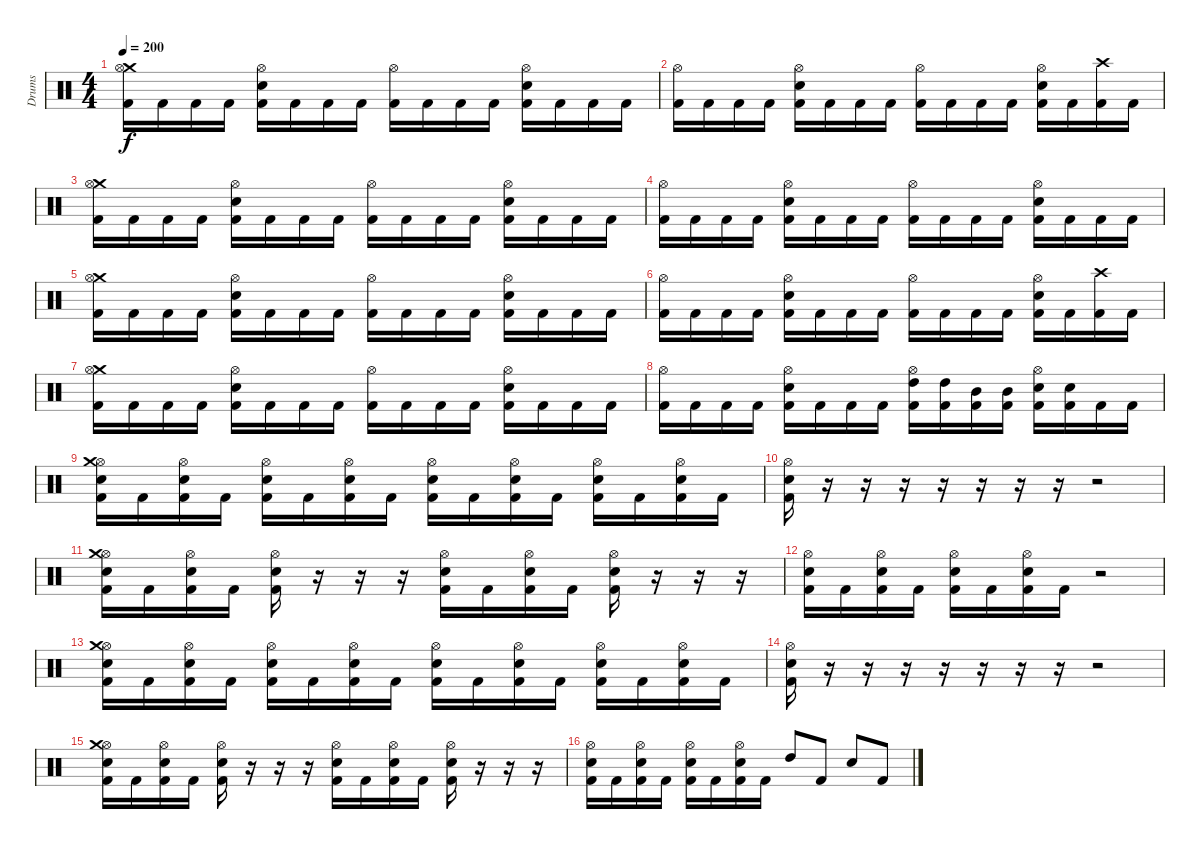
\track ("Drums" "Drums") {instrument percussion}
\staff {score}
\articulation defaults
\ts (4 4)
\tempo 200
\clef neutral
\ks c
("Crash medium (hit)" "Hi-Hat (open)" "Kick (hit) 2").16{dy f} "Kick (hit) 2".16 "Kick (hit) 2".16 "Kick (hit) 2".16 ("Hi-Hat (open)" "Electric Snare (hit)" "Kick (hit) 2").16 "Kick (hit) 2".16 "Kick (hit) 2".16 "Kick (hit) 2".16 ("Hi-Hat (open)" "Kick (hit) 2").16 "Kick (hit) 2".16 "Kick (hit) 2".16 "Kick (hit) 2".16 ("Hi-Hat (open)" "Electric Snare (hit)" "Kick (hit) 2").16 "Kick (hit) 2".16 "Kick (hit) 2".16 "Kick (hit) 2".16 |
("Hi-Hat (open)" "Kick (hit) 2").16 "Kick (hit) 2".16 "Kick (hit) 2".16 "Kick (hit) 2".16 ("Hi-Hat (open)" "Electric Snare (hit)" "Kick (hit) 2").16 "Kick (hit) 2".16 "Kick (hit) 2".16 "Kick (hit) 2".16 ("Hi-Hat (open)" "Kick (hit) 2").16 "Kick (hit) 2".16 "Kick (hit) 2".16 "Kick (hit) 2".16 ("Hi-Hat (open)" "Electric Snare (hit)" "Kick (hit) 2").16 "Kick (hit) 2".16 ("Crash high (hit)" "Kick (hit) 2").16 "Kick (hit) 2".16 |
("Crash medium (hit)" "Hi-Hat (open)" "Kick (hit) 2").16 "Kick (hit) 2".16 "Kick (hit) 2".16 "Kick (hit) 2".16 ("Hi-Hat (open)" "Electric Snare (hit)" "Kick (hit) 2").16 "Kick (hit) 2".16 "Kick (hit) 2".16 "Kick (hit) 2".16 ("Hi-Hat (open)" "Kick (hit) 2").16 "Kick (hit) 2".16 "Kick (hit) 2".16 "Kick (hit) 2".16 ("Hi-Hat (open)" "Electric Snare (hit)" "Kick (hit) 2").16 "Kick (hit) 2".16 "Kick (hit) 2".16 "Kick (hit) 2".16 |
("Hi-Hat (open)" "Kick (hit) 2").16 "Kick (hit) 2".16 "Kick (hit) 2".16 "Kick (hit) 2".16 ("Hi-Hat (open)" "Electric Snare (hit)" "Kick (hit) 2").16 "Kick (hit) 2".16 "Kick (hit) 2".16 "Kick (hit) 2".16 ("Hi-Hat (open)" "Kick (hit) 2").16 "Kick (hit) 2".16 "Kick (hit) 2".16 "Kick (hit) 2".16 ("Hi-Hat (open)" "Electric Snare (hit)" "Kick (hit) 2").16 "Kick (hit) 2".16 "Kick (hit) 2".16 "Kick (hit) 2".16 |
("Crash medium (hit)" "Hi-Hat (open)" "Kick (hit) 2").16 "Kick (hit) 2".16 "Kick (hit) 2".16 "Kick (hit) 2".16 ("Hi-Hat (open)" "Electric Snare (hit)" "Kick (hit) 2").16 "Kick (hit) 2".16 "Kick (hit) 2".16 "Kick (hit) 2".16 ("Hi-Hat (open)" "Kick (hit) 2").16 "Kick (hit) 2".16 "Kick (hit) 2".16 "Kick (hit) 2".16 ("Hi-Hat (open)" "Electric Snare (hit)" "Kick (hit) 2").16 "Kick (hit) 2".16 "Kick (hit) 2".16 "Kick (hit) 2".16 |
("Hi-Hat (open)" "Kick (hit) 2").16 "Kick (hit) 2".16 "Kick (hit) 2".16 "Kick (hit) 2".16 ("Hi-Hat (open)" "Electric Snare (hit)" "Kick (hit) 2").16 "Kick (hit) 2".16 "Kick (hit) 2".16 "Kick (hit) 2".16 ("Hi-Hat (open)" "Kick (hit) 2").16 "Kick (hit) 2".16 "Kick (hit) 2".16 "Kick (hit) 2".16 ("Hi-Hat (open)" "Electric Snare (hit)" "Kick (hit) 2").16 "Kick (hit) 2".16 ("Crash high (hit)" "Kick (hit) 2").16 "Kick (hit) 2".16 |
("Crash medium (hit)" "Hi-Hat (open)" "Kick (hit) 2").16 "Kick (hit) 2".16 "Kick (hit) 2".16 "Kick (hit) 2".16 ("Hi-Hat (open)" "Electric Snare (hit)" "Kick (hit) 2").16 "Kick (hit) 2".16 "Kick (hit) 2".16 "Kick (hit) 2".16 ("Hi-Hat (open)" "Kick (hit) 2").16 "Kick (hit) 2".16 "Kick (hit) 2".16 "Kick (hit) 2".16 ("Hi-Hat (open)" "Electric Snare (hit)" "Kick (hit) 2").16 "Kick (hit) 2".16 "Kick (hit) 2".16 "Kick (hit) 2".16 |
("Hi-Hat (open)" "Kick (hit) 2").16 "Kick (hit) 2".16 "Kick (hit) 2".16 "Kick (hit) 2".16 ("Hi-Hat (open)" "Electric Snare (hit)" "Kick (hit) 2").16 "Kick (hit) 2".16 "Kick (hit) 2".16 "Kick (hit) 2".16 ("Hi-Hat (open)" "High Tom (hit)" "Kick (hit) 2").16 ("High Tom (hit)" "Kick (hit) 2").16 ("Mid Tom (hit)" "Kick (hit) 2").16 ("Mid Tom (hit)" "Kick (hit) 2").16 ("Hi-Hat (open)" "Electric Snare (hit)" "Kick (hit) 2").16 ("Electric Snare (hit)" "Kick (hit) 2").16 "Kick (hit) 2".16 "Kick (hit) 2".16 |
("Hi-Hat (open)" "Crash medium (hit)" "Electric Snare (hit)" "Kick (hit) 2").16 "Kick (hit) 2".16 ("Hi-Hat (open)" "Electric Snare (hit)" "Kick (hit) 2").16 "Kick (hit) 2".16 ("Hi-Hat (open)" "Electric Snare (hit)" "Kick (hit) 2").16 "Kick (hit) 2".16 ("Hi-Hat (open)" "Electric Snare (hit)" "Kick (hit) 2").16 "Kick (hit) 2".16 ("Hi-Hat (open)" "Electric Snare (hit)" "Kick (hit) 2").16 "Kick (hit) 2".16 ("Hi-Hat (open)" "Electric Snare (hit)" "Kick (hit) 2").16 "Kick (hit) 2".16 ("Hi-Hat (open)" "Electric Snare (hit)" "Kick (hit) 2").16 "Kick (hit) 2".16 ("Hi-Hat (open)" "Electric Snare (hit)" "Kick (hit) 2").16 "Kick (hit) 2".16 |
("Hi-Hat (open)" "Electric Snare (hit)" "Kick (hit) 2").16 r.16 r.16 r.16 r.16 r.16 r.16 r.16 r.2 |
("Hi-Hat (open)" "Crash medium (hit)" "Electric Snare (hit)" "Kick (hit) 2").16 "Kick (hit) 2".16 ("Hi-Hat (open)" "Electric Snare (hit)" "Kick (hit) 2").16 "Kick (hit) 2".16 ("Hi-Hat (open)" "Electric Snare (hit)" "Kick (hit) 2").16 r.16 r.16 r.16 ("Hi-Hat (open)" "Electric Snare (hit)" "Kick (hit) 2").16 "Kick (hit) 2".16 ("Hi-Hat (open)" "Electric Snare (hit)" "Kick (hit) 2").16 "Kick (hit) 2".16 ("Hi-Hat (open)" "Electric Snare (hit)" "Kick (hit) 2").16 r.16 r.16 r.16 |
("Hi-Hat (open)" "Electric Snare (hit)" "Kick (hit) 2").16 "Kick (hit) 2".16 ("Hi-Hat (open)" "Electric Snare (hit)" "Kick (hit) 2").16 "Kick (hit) 2".16 ("Hi-Hat (open)" "Electric Snare (hit)" "Kick (hit) 2").16 "Kick (hit) 2".16 ("Hi-Hat (open)" "Electric Snare (hit)" "Kick (hit) 2").16 "Kick (hit) 2".16 r.2 |
("Hi-Hat (open)" "Crash medium (hit)" "Electric Snare (hit)" "Kick (hit) 2").16 "Kick (hit) 2".16 ("Hi-Hat (open)" "Electric Snare (hit)" "Kick (hit) 2").16 "Kick (hit) 2".16 ("Hi-Hat (open)" "Electric Snare (hit)" "Kick (hit) 2").16 "Kick (hit) 2".16 ("Hi-Hat (open)" "Electric Snare (hit)" "Kick (hit) 2").16 "Kick (hit) 2".16 ("Hi-Hat (open)" "Electric Snare (hit)" "Kick (hit) 2").16 "Kick (hit) 2".16 ("Hi-Hat (open)" "Electric Snare (hit)" "Kick (hit) 2").16 "Kick (hit) 2".16 ("Hi-Hat (open)" "Electric Snare (hit)" "Kick (hit) 2").16 "Kick (hit) 2".16 ("Hi-Hat (open)" "Electric Snare (hit)" "Kick (hit) 2").16 "Kick (hit) 2".16 |
("Hi-Hat (open)" "Electric Snare (hit)" "Kick (hit) 2").16 r.16 r.16 r.16 r.16 r.16 r.16 r.16 r.2 |
("Hi-Hat (open)" "Crash medium (hit)" "Electric Snare (hit)" "Kick (hit) 2").16 "Kick (hit) 2".16 ("Hi-Hat (open)" "Electric Snare (hit)" "Kick (hit) 2").16 "Kick (hit) 2".16 ("Hi-Hat (open)" "Electric Snare (hit)" "Kick (hit) 2").16 r.16 r.16 r.16 ("Hi-Hat (open)" "Electric Snare (hit)" "Kick (hit) 2").16 "Kick (hit) 2".16 ("Hi-Hat (open)" "Electric Snare (hit)" "Kick (hit) 2").16 "Kick (hit) 2".16 ("Hi-Hat (open)" "Electric Snare (hit)" "Kick (hit) 2").16 r.16 r.16 r.16 |
("Hi-Hat (open)" "Electric Snare (hit)" "Kick (hit) 2").16 "Kick (hit) 2".16 ("Hi-Hat (open)" "Electric Snare (hit)" "Kick (hit) 2").16 "Kick (hit) 2".16 ("Hi-Hat (open)" "Electric Snare (hit)" "Kick (hit) 2").16 "Kick (hit) 2".16 ("Hi-Hat (open)" "Electric Snare (hit)" "Kick (hit) 2").16 "Kick (hit) 2".16 "High Tom (hit)".8 "Kick (hit) 2".8 "Electric Snare (hit)".8 "Kick (hit) 2".8
